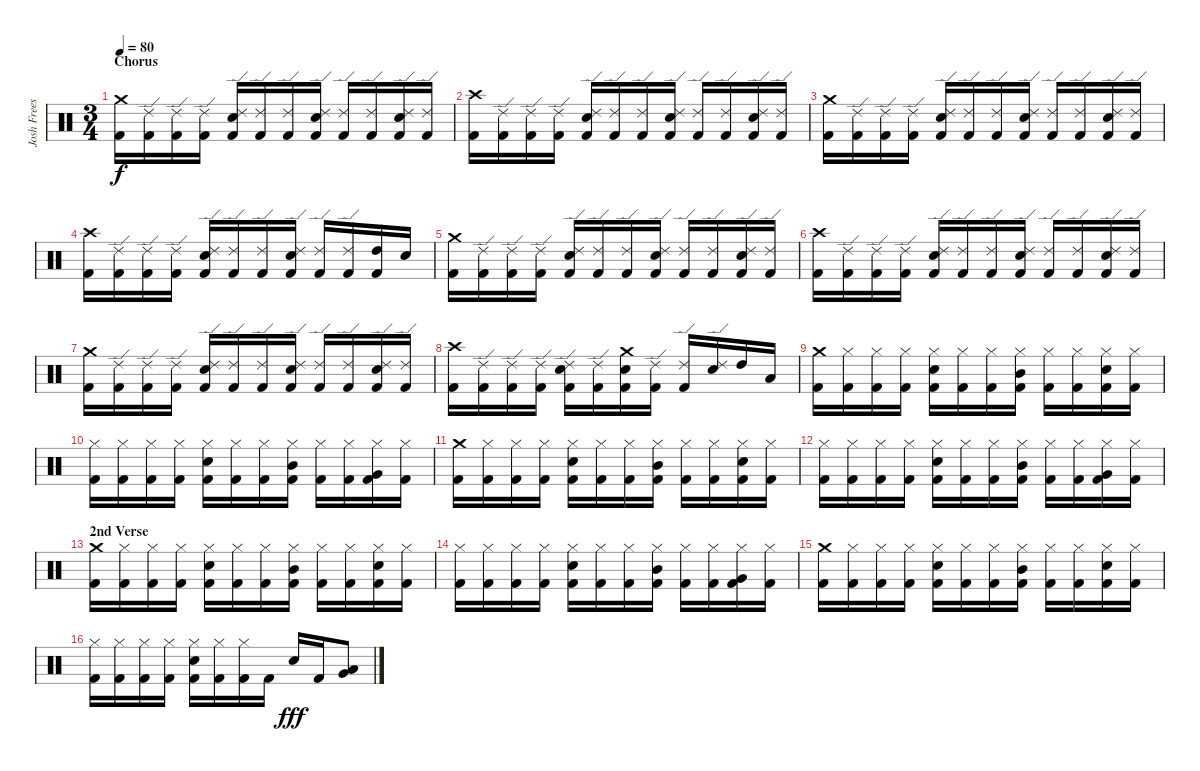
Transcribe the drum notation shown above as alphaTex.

\track ("Josh Freese" "Josh Frees") {instrument percussion}
\staff {score}
\articulation defaults
\ts (3 4)
\section ("" "Chorus")
\tempo 80
\clef neutral
\ks c
("Crash medium (hit)" "Kick (hit) 2").16{dy f} ("Ride (edge) 2" "Kick (hit) 2").16 ("Ride (edge) 2" "Kick (hit) 2").16 ("Ride (edge) 2" "Kick (hit) 2").16 ("Ride (edge) 2" "Electric Snare (hit)" "Kick (hit) 2").16 ("Ride (edge) 2" "Kick (hit) 2").16 ("Ride (edge) 2" "Kick (hit) 2").16 ("Ride (edge) 2" "Electric Snare (hit)" "Kick (hit) 2").16 ("Ride (edge) 2" "Kick (hit) 2").16 ("Ride (edge) 2" "Kick (hit) 2").16 ("Ride (edge) 2" "Electric Snare (hit)" "Kick (hit) 2").16 ("Ride (edge) 2" "Kick (hit) 2").16 |
("Crash high (hit)" "Kick (hit) 2").16 ("Ride (edge) 2" "Kick (hit) 2").16 ("Ride (edge) 2" "Kick (hit) 2").16 ("Ride (edge) 2" "Kick (hit) 2").16 ("Ride (edge) 2" "Electric Snare (hit)" "Kick (hit) 2").16 ("Ride (edge) 2" "Kick (hit) 2").16 ("Ride (edge) 2" "Kick (hit) 2").16 ("Ride (edge) 2" "Electric Snare (hit)" "Kick (hit) 2").16 ("Ride (edge) 2" "Kick (hit) 2").16 ("Ride (edge) 2" "Kick (hit) 2").16 ("Ride (edge) 2" "Electric Snare (hit)" "Kick (hit) 2").16 ("Ride (edge) 2" "Kick (hit) 2").16 |
("Crash medium (hit)" "Kick (hit) 2").16 ("Ride (edge) 2" "Kick (hit) 2").16 ("Ride (edge) 2" "Kick (hit) 2").16 ("Ride (edge) 2" "Kick (hit) 2").16 ("Ride (edge) 2" "Electric Snare (hit)" "Kick (hit) 2").16 ("Ride (edge) 2" "Kick (hit) 2").16 ("Ride (edge) 2" "Kick (hit) 2").16 ("Ride (edge) 2" "Electric Snare (hit)" "Kick (hit) 2").16 ("Ride (edge) 2" "Kick (hit) 2").16 ("Ride (edge) 2" "Kick (hit) 2").16 ("Ride (edge) 2" "Electric Snare (hit)" "Kick (hit) 2").16 ("Ride (edge) 2" "Kick (hit) 2").16 |
("Crash high (hit)" "Kick (hit) 2").16 ("Ride (edge) 2" "Kick (hit) 2").16 ("Ride (edge) 2" "Kick (hit) 2").16 ("Ride (edge) 2" "Kick (hit) 2").16 ("Ride (edge) 2" "Electric Snare (hit)" "Kick (hit) 2").16 ("Ride (edge) 2" "Kick (hit) 2").16 ("Ride (edge) 2" "Kick (hit) 2").16 ("Ride (edge) 2" "Electric Snare (hit)" "Kick (hit) 2").16 ("Ride (edge) 2" "Kick (hit) 2").16 ("Ride (edge) 2" "Kick (hit) 2").16 ("High Tom (hit)" "Kick (hit) 2").16 "Electric Snare (hit)".16 |
("Crash medium (hit)" "Kick (hit) 2").16 ("Ride (edge) 2" "Kick (hit) 2").16 ("Ride (edge) 2" "Kick (hit) 2").16 ("Ride (edge) 2" "Kick (hit) 2").16 ("Ride (edge) 2" "Electric Snare (hit)" "Kick (hit) 2").16 ("Ride (edge) 2" "Kick (hit) 2").16 ("Ride (edge) 2" "Kick (hit) 2").16 ("Ride (edge) 2" "Electric Snare (hit)" "Kick (hit) 2").16 ("Ride (edge) 2" "Kick (hit) 2").16 ("Ride (edge) 2" "Kick (hit) 2").16 ("Ride (edge) 2" "Electric Snare (hit)" "Kick (hit) 2").16 ("Ride (edge) 2" "Kick (hit) 2").16 |
("Crash high (hit)" "Kick (hit) 2").16 ("Ride (edge) 2" "Kick (hit) 2").16 ("Ride (edge) 2" "Kick (hit) 2").16 ("Ride (edge) 2" "Kick (hit) 2").16 ("Ride (edge) 2" "Electric Snare (hit)" "Kick (hit) 2").16 ("Ride (edge) 2" "Kick (hit) 2").16 ("Ride (edge) 2" "Kick (hit) 2").16 ("Ride (edge) 2" "Electric Snare (hit)" "Kick (hit) 2").16 ("Ride (edge) 2" "Kick (hit) 2").16 ("Ride (edge) 2" "Kick (hit) 2").16 ("Ride (edge) 2" "Electric Snare (hit)" "Kick (hit) 2").16 ("Ride (edge) 2" "Kick (hit) 2").16 |
("Crash medium (hit)" "Kick (hit) 2").16 ("Ride (edge) 2" "Kick (hit) 2").16 ("Ride (edge) 2" "Kick (hit) 2").16 ("Ride (edge) 2" "Kick (hit) 2").16 ("Ride (edge) 2" "Electric Snare (hit)" "Kick (hit) 2").16 ("Ride (edge) 2" "Kick (hit) 2").16 ("Ride (edge) 2" "Kick (hit) 2").16 ("Ride (edge) 2" "Electric Snare (hit)" "Kick (hit) 2").16 ("Ride (edge) 2" "Kick (hit) 2").16 ("Ride (edge) 2" "Kick (hit) 2").16 ("Ride (edge) 2" "Electric Snare (hit)" "Kick (hit) 2").16 ("Ride (edge) 2" "Kick (hit) 2").16 |
("Crash high (hit)" "Kick (hit) 2").16 ("Ride (edge) 2" "Kick (hit) 2").16 ("Ride (edge) 2" "Kick (hit) 2").16 ("Ride (edge) 2" "Kick (hit) 2").16 ("Ride (edge) 2" "Electric Snare (hit)" "Kick (hit) 2").16 ("Ride (edge) 2" "Kick (hit) 2").16 ("Crash medium (hit)" "Electric Snare (hit)" "Kick (hit) 2").16 ("Ride (edge) 2" "Kick (hit) 2").16 ("Ride (edge) 2" "Kick (hit) 2").16 ("Ride (edge) 2" "Electric Snare (hit)").16 "High Tom (hit)".16 "Low Tom (hit)".16 |
("Crash medium (hit)" "Kick (hit) 2").16 ("Hi-Hat (closed)" "Kick (hit) 2").16 ("Hi-Hat (closed)" "Kick (hit) 2").16 ("Hi-Hat (closed)" "Kick (hit) 2").16 ("Hi-Hat (closed)" "Electric Snare (hit)" "Kick (hit) 2").16 ("Hi-Hat (closed)" "Kick (hit) 2").16 ("Hi-Hat (closed)" "Kick (hit) 2").16 ("Hi-Hat (closed)" "Mid Tom (hit)" "Kick (hit) 2").16 ("Hi-Hat (closed)" "Kick (hit) 2").16 ("Hi-Hat (closed)" "Kick (hit) 2").16 ("Hi-Hat (closed)" "Electric Snare (hit)" "Kick (hit) 2").16 ("Hi-Hat (closed)" "Kick (hit) 2").16 |
("Hi-Hat (closed)" "Kick (hit) 2").16 ("Hi-Hat (closed)" "Kick (hit) 2").16 ("Hi-Hat (closed)" "Kick (hit) 2").16 ("Hi-Hat (closed)" "Kick (hit) 2").16 ("Hi-Hat (closed)" "Electric Snare (hit)" "Kick (hit) 2").16 ("Hi-Hat (closed)" "Kick (hit) 2").16 ("Hi-Hat (closed)" "Kick (hit) 2").16 ("Hi-Hat (closed)" "Mid Tom (hit)" "Kick (hit) 2").16 ("Hi-Hat (closed)" "Kick (hit) 2").16 ("Hi-Hat (closed)" "Kick (hit) 2").16 ("Hi-Hat (closed)" "Very Low Tom (hit)" "Kick (hit) 2").16 ("Hi-Hat (closed)" "Kick (hit) 2").16 |
("Crash medium (hit)" "Kick (hit) 2").16 ("Hi-Hat (closed)" "Kick (hit) 2").16 ("Hi-Hat (closed)" "Kick (hit) 2").16 ("Hi-Hat (closed)" "Kick (hit) 2").16 ("Hi-Hat (closed)" "Electric Snare (hit)" "Kick (hit) 2").16 ("Hi-Hat (closed)" "Kick (hit) 2").16 ("Hi-Hat (closed)" "Kick (hit) 2").16 ("Hi-Hat (closed)" "Mid Tom (hit)" "Kick (hit) 2").16 ("Hi-Hat (closed)" "Kick (hit) 2").16 ("Hi-Hat (closed)" "Kick (hit) 2").16 ("Hi-Hat (closed)" "Electric Snare (hit)" "Kick (hit) 2").16 ("Hi-Hat (closed)" "Kick (hit) 2").16 |
("Hi-Hat (closed)" "Kick (hit) 2").16 ("Hi-Hat (closed)" "Kick (hit) 2").16 ("Hi-Hat (closed)" "Kick (hit) 2").16 ("Hi-Hat (closed)" "Kick (hit) 2").16 ("Hi-Hat (closed)" "Electric Snare (hit)" "Kick (hit) 2").16 ("Hi-Hat (closed)" "Kick (hit) 2").16 ("Hi-Hat (closed)" "Kick (hit) 2").16 ("Hi-Hat (closed)" "Mid Tom (hit)" "Kick (hit) 2").16 ("Hi-Hat (closed)" "Kick (hit) 2").16 ("Hi-Hat (closed)" "Kick (hit) 2").16 ("Hi-Hat (closed)" "Very Low Tom (hit)" "Kick (hit) 2").16 ("Hi-Hat (closed)" "Kick (hit) 2").16 |
\section ("" "2nd Verse")
("Crash medium (hit)" "Kick (hit) 2").16 ("Hi-Hat (closed)" "Kick (hit) 2").16 ("Hi-Hat (closed)" "Kick (hit) 2").16 ("Hi-Hat (closed)" "Kick (hit) 2").16 ("Hi-Hat (closed)" "Electric Snare (hit)" "Kick (hit) 2").16 ("Hi-Hat (closed)" "Kick (hit) 2").16 ("Hi-Hat (closed)" "Kick (hit) 2").16 ("Hi-Hat (closed)" "Mid Tom (hit)" "Kick (hit) 2").16 ("Hi-Hat (closed)" "Kick (hit) 2").16 ("Hi-Hat (closed)" "Kick (hit) 2").16 ("Hi-Hat (closed)" "Electric Snare (hit)" "Kick (hit) 2").16 ("Hi-Hat (closed)" "Kick (hit) 2").16 |
("Hi-Hat (closed)" "Kick (hit) 2").16 ("Hi-Hat (closed)" "Kick (hit) 2").16 ("Hi-Hat (closed)" "Kick (hit) 2").16 ("Hi-Hat (closed)" "Kick (hit) 2").16 ("Hi-Hat (closed)" "Electric Snare (hit)" "Kick (hit) 2").16 ("Hi-Hat (closed)" "Kick (hit) 2").16 ("Hi-Hat (closed)" "Kick (hit) 2").16 ("Hi-Hat (closed)" "Mid Tom (hit)" "Kick (hit) 2").16 ("Hi-Hat (closed)" "Kick (hit) 2").16 ("Hi-Hat (closed)" "Kick (hit) 2").16 ("Hi-Hat (closed)" "Very Low Tom (hit)" "Kick (hit) 2").16 ("Hi-Hat (closed)" "Kick (hit) 2").16 |
("Crash medium (hit)" "Kick (hit) 2").16 ("Hi-Hat (closed)" "Kick (hit) 2").16 ("Hi-Hat (closed)" "Kick (hit) 2").16 ("Hi-Hat (closed)" "Kick (hit) 2").16 ("Hi-Hat (closed)" "Electric Snare (hit)" "Kick (hit) 2").16 ("Hi-Hat (closed)" "Kick (hit) 2").16 ("Hi-Hat (closed)" "Kick (hit) 2").16 ("Hi-Hat (closed)" "Mid Tom (hit)" "Kick (hit) 2").16 ("Hi-Hat (closed)" "Kick (hit) 2").16 ("Hi-Hat (closed)" "Kick (hit) 2").16 ("Hi-Hat (closed)" "Electric Snare (hit)" "Kick (hit) 2").16 ("Hi-Hat (closed)" "Kick (hit) 2").16 |
("Hi-Hat (closed)" "Kick (hit) 2").16 ("Hi-Hat (closed)" "Kick (hit) 2").16 ("Hi-Hat (closed)" "Kick (hit) 2").16 ("Hi-Hat (closed)" "Kick (hit) 2").16 ("Hi-Hat (closed)" "Electric Snare (hit)" "Kick (hit) 2").16 ("Hi-Hat (closed)" "Kick (hit) 2").16 ("Hi-Hat (closed)" "Kick (hit) 2").16 "Kick (hit) 2".16 "Electric Snare (hit)".16{dy fff} "Kick (hit) 2".16 ("Very Low Tom (hit)" "Low Floor Tom (hit)").8
